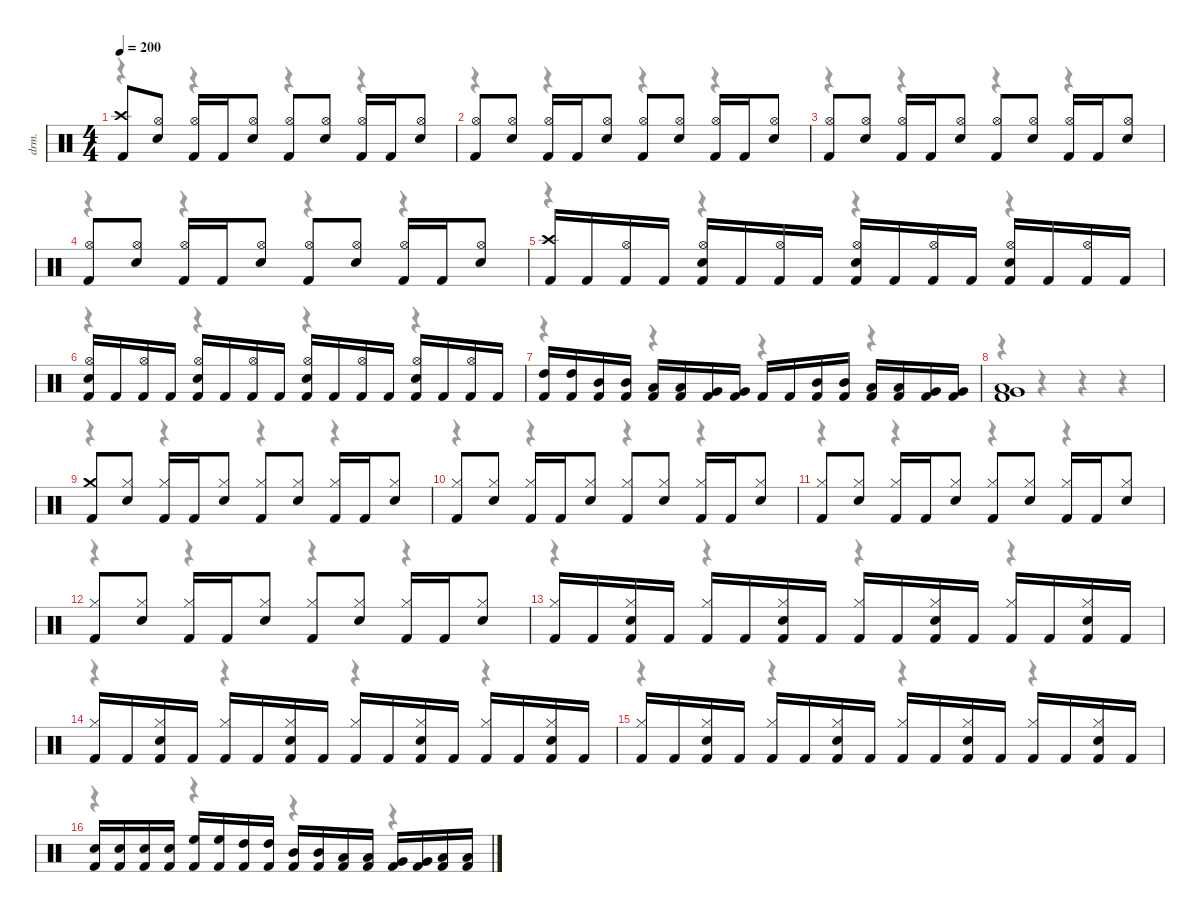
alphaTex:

\hideDynamics
\bracketExtendMode nobrackets
\otherSystemsTrackNameOrientation horizontal
\track ("Drums" "drm.") {instrument percussion}
\staff {score}
\articulation defaults
\voice
\ts (4 4)
\scale
0.992595
\tempo 200
\accidentals auto
\clef neutral
\ottava regular
\simile none
\ks c
("Kick (hit) 2" "Crash high (hit)").8{dy f} ("Snare (hit) 2" "Hi-Hat (open)").8 ("Kick (hit) 2" "Hi-Hat (open)").16 "Kick (hit) 2".16 ("Snare (hit) 2" "Hi-Hat (open)").8 ("Kick (hit) 2" "Hi-Hat (open)").8 ("Snare (hit) 2" "Hi-Hat (open)").8 ("Kick (hit) 2" "Hi-Hat (open)").16 "Kick (hit) 2".16 ("Snare (hit) 2" "Hi-Hat (open)").8 |
\scale
0.977884 ("Kick (hit) 2" "Hi-Hat (open)").8 ("Snare (hit) 2" "Hi-Hat (open)").8 ("Kick (hit) 2" "Hi-Hat (open)").16 "Kick (hit) 2".16 ("Snare (hit) 2" "Hi-Hat (open)").8 ("Kick (hit) 2" "Hi-Hat (open)").8 ("Snare (hit) 2" "Hi-Hat (open)").8 ("Kick (hit) 2" "Hi-Hat (open)").16 "Kick (hit) 2".16 ("Snare (hit) 2" "Hi-Hat (open)").8 |
\scale
0.977884 ("Kick (hit) 2" "Hi-Hat (open)").8 ("Snare (hit) 2" "Hi-Hat (open)").8 ("Kick (hit) 2" "Hi-Hat (open)").16 "Kick (hit) 2".16 ("Snare (hit) 2" "Hi-Hat (open)").8 ("Kick (hit) 2" "Hi-Hat (open)").8 ("Snare (hit) 2" "Hi-Hat (open)").8 ("Kick (hit) 2" "Hi-Hat (open)").16 "Kick (hit) 2".16 ("Snare (hit) 2" "Hi-Hat (open)").8 |
\scale
0.977884 ("Kick (hit) 2" "Hi-Hat (open)").8 ("Snare (hit) 2" "Hi-Hat (open)").8 ("Kick (hit) 2" "Hi-Hat (open)").16 "Kick (hit) 2".16 ("Snare (hit) 2" "Hi-Hat (open)").8 ("Kick (hit) 2" "Hi-Hat (open)").8 ("Snare (hit) 2" "Hi-Hat (open)").8 ("Kick (hit) 2" "Hi-Hat (open)").16 "Kick (hit) 2".16 ("Snare (hit) 2" "Hi-Hat (open)").8 |
\scale
1.08155 ("Kick (hit) 2" "Crash high (hit)").16 "Kick (hit) 2".16 ("Kick (hit) 2" "Hi-Hat (open)").16 "Kick (hit) 2".16 ("Kick (hit) 2" "Snare (hit) 2" "Hi-Hat (open)").16 "Kick (hit) 2".16 ("Kick (hit) 2" "Hi-Hat (open)").16 "Kick (hit) 2".16 ("Kick (hit) 2" "Snare (hit) 2" "Hi-Hat (open)").16 "Kick (hit) 2".16 ("Kick (hit) 2" "Hi-Hat (open)").16 "Kick (hit) 2".16 ("Kick (hit) 2" "Snare (hit) 2" "Hi-Hat (open)").16 "Kick (hit) 2".16 ("Kick (hit) 2" "Hi-Hat (open)").16 "Kick (hit) 2".16 |
\scale
0.978277 ("Kick (hit) 2" "Snare (hit) 2" "Hi-Hat (open)").16 "Kick (hit) 2".16 ("Kick (hit) 2" "Hi-Hat (open)").16 "Kick (hit) 2".16 ("Kick (hit) 2" "Snare (hit) 2" "Hi-Hat (open)").16 "Kick (hit) 2".16 ("Kick (hit) 2" "Hi-Hat (open)").16 "Kick (hit) 2".16 ("Kick (hit) 2" "Snare (hit) 2" "Hi-Hat (open)").16 "Kick (hit) 2".16 ("Kick (hit) 2" "Hi-Hat (open)").16 "Kick (hit) 2".16 ("Kick (hit) 2" "Snare (hit) 2" "Hi-Hat (open)").16 "Kick (hit) 2".16 ("Kick (hit) 2" "Hi-Hat (open)").16 "Kick (hit) 2".16 |
\scale
0.978277 ("Kick (hit) 2" "High Tom (hit)").16 ("Kick (hit) 2" "High Tom (hit)").16 ("Kick (hit) 2" "Mid Tom (hit)").16 ("Kick (hit) 2" "Mid Tom (hit)").16 ("Kick (hit) 2" "Low Tom (hit)").16 ("Kick (hit) 2" "Low Tom (hit)").16 ("Kick (hit) 2" "Very Low Tom (hit)").16 ("Kick (hit) 2" "Very Low Tom (hit)").16 "Kick (hit) 2".16 "Kick (hit) 2".16 ("Kick (hit) 2" "Mid Tom (hit)").16 ("Kick (hit) 2" "Mid Tom (hit)").16 ("Kick (hit) 2" "Low Tom (hit)").16 ("Kick (hit) 2" "Low Tom (hit)").16 ("Kick (hit) 2" "Very Low Tom (hit)").16 ("Kick (hit) 2" "Very Low Tom (hit)").16 |
\scale
0.990634 ("Kick (hit) 2" "Very Low Tom (hit)" "Low Floor Tom (hit)").1 |
\section ("" "")
\scale
0.978277 ("Kick (hit) 2" "Crash medium (hit)").8 ("Snare (hit) 2" "Hi-Hat (closed)").8 ("Kick (hit) 2" "Hi-Hat (closed)").16 "Kick (hit) 2".16 ("Snare (hit) 2" "Hi-Hat (closed)").8 ("Kick (hit) 2" "Hi-Hat (closed)").8 ("Snare (hit) 2" "Hi-Hat (closed)").8 ("Kick (hit) 2" "Hi-Hat (closed)").16 "Kick (hit) 2".16 ("Snare (hit) 2" "Hi-Hat (closed)").8 |
\scale
0.992988 ("Kick (hit) 2" "Hi-Hat (closed)").8 ("Snare (hit) 2" "Hi-Hat (closed)").8 ("Kick (hit) 2" "Hi-Hat (closed)").16 "Kick (hit) 2".16 ("Snare (hit) 2" "Hi-Hat (closed)").8 ("Kick (hit) 2" "Hi-Hat (closed)").8 ("Snare (hit) 2" "Hi-Hat (closed)").8 ("Kick (hit) 2" "Hi-Hat (closed)").16 "Kick (hit) 2".16 ("Snare (hit) 2" "Hi-Hat (closed)").8 |
\scale
1.0787 ("Kick (hit) 2" "Hi-Hat (closed)").8 ("Snare (hit) 2" "Hi-Hat (closed)").8 ("Kick (hit) 2" "Hi-Hat (closed)").16 "Kick (hit) 2".16 ("Snare (hit) 2" "Hi-Hat (closed)").8 ("Kick (hit) 2" "Hi-Hat (closed)").8 ("Snare (hit) 2" "Hi-Hat (closed)").8 ("Kick (hit) 2" "Hi-Hat (closed)").16 "Kick (hit) 2".16 ("Snare (hit) 2" "Hi-Hat (closed)").8 |
\scale
0.990143 ("Kick (hit) 2" "Hi-Hat (closed)").8 ("Snare (hit) 2" "Hi-Hat (closed)").8 ("Kick (hit) 2" "Hi-Hat (closed)").16 "Kick (hit) 2".16 ("Snare (hit) 2" "Hi-Hat (closed)").8 ("Kick (hit) 2" "Hi-Hat (closed)").8 ("Snare (hit) 2" "Hi-Hat (closed)").8 ("Kick (hit) 2" "Hi-Hat (closed)").16 "Kick (hit) 2".16 ("Snare (hit) 2" "Hi-Hat (closed)").8 |
\scale
0.975432 ("Kick (hit) 2" "Hi-Hat (closed)").16 "Kick (hit) 2".16 ("Kick (hit) 2" "Snare (hit) 2" "Hi-Hat (closed)").16 "Kick (hit) 2".16 ("Kick (hit) 2" "Hi-Hat (closed)").16 "Kick (hit) 2".16 ("Kick (hit) 2" "Snare (hit) 2" "Hi-Hat (closed)").16 "Kick (hit) 2".16 ("Kick (hit) 2" "Hi-Hat (closed)").16 "Kick (hit) 2".16 ("Kick (hit) 2" "Snare (hit) 2" "Hi-Hat (closed)").16 "Kick (hit) 2".16 ("Kick (hit) 2" "Hi-Hat (closed)").16 "Kick (hit) 2".16 ("Kick (hit) 2" "Snare (hit) 2" "Hi-Hat (closed)").16 "Kick (hit) 2".16 |
\scale
0.975432 ("Kick (hit) 2" "Hi-Hat (closed)").16 "Kick (hit) 2".16 ("Kick (hit) 2" "Snare (hit) 2" "Hi-Hat (closed)").16 "Kick (hit) 2".16 ("Kick (hit) 2" "Hi-Hat (closed)").16 "Kick (hit) 2".16 ("Kick (hit) 2" "Snare (hit) 2" "Hi-Hat (closed)").16 "Kick (hit) 2".16 ("Kick (hit) 2" "Hi-Hat (closed)").16 "Kick (hit) 2".16 ("Kick (hit) 2" "Snare (hit) 2" "Hi-Hat (closed)").16 "Kick (hit) 2".16 ("Kick (hit) 2" "Hi-Hat (closed)").16 "Kick (hit) 2".16 ("Kick (hit) 2" "Snare (hit) 2" "Hi-Hat (closed)").16 "Kick (hit) 2".16 |
\scale
0.990143 ("Kick (hit) 2" "Hi-Hat (closed)").16 "Kick (hit) 2".16 ("Kick (hit) 2" "Snare (hit) 2" "Hi-Hat (closed)").16 "Kick (hit) 2".16 ("Kick (hit) 2" "Hi-Hat (closed)").16 "Kick (hit) 2".16 ("Kick (hit) 2" "Snare (hit) 2" "Hi-Hat (closed)").16 "Kick (hit) 2".16 ("Kick (hit) 2" "Hi-Hat (closed)").16 "Kick (hit) 2".16 ("Kick (hit) 2" "Snare (hit) 2" "Hi-Hat (closed)").16 "Kick (hit) 2".16 ("Kick (hit) 2" "Hi-Hat (closed)").16 "Kick (hit) 2".16 ("Kick (hit) 2" "Snare (hit) 2" "Hi-Hat (closed)").16 "Kick (hit) 2".16 |
\scale
0.990143 ("Kick (hit) 2" "Snare (hit) 2").16 ("Kick (hit) 2" "Snare (hit) 2").16 ("Kick (hit) 2" "Snare (hit) 2").16 ("Kick (hit) 2" "Snare (hit) 2").16 ("Kick (hit) 2" "High Floor Tom (hit)").16 ("Kick (hit) 2" "High Floor Tom (hit)").16 ("Kick (hit) 2" "High Tom (hit)").16 ("Kick (hit) 2" "High Tom (hit)").16 ("Kick (hit) 2" "Mid Tom (hit)").16 ("Kick (hit) 2" "Mid Tom (hit)").16 ("Kick (hit) 2" "Low Tom (hit)").16 ("Kick (hit) 2" "Low Tom (hit)").16 ("Kick (hit) 2" "Very Low Tom (hit)").16 ("Kick (hit) 2" "Very Low Tom (hit)").16 ("Kick (hit) 2" "Low Floor Tom (hit)").16 ("Kick (hit) 2" "Low Floor Tom (hit)").16
\voice
\clef neutral
\ottava regular
\simile none
\ks c
r.4{dy mf} r.4 r.4 r.4 |
r.4 r.4 r.4 r.4 |
r.4 r.4 r.4 r.4 |
r.4 r.4 r.4 r.4 |
r.4 r.4 r.4 r.4 |
r.4 r.4 r.4 r.4 |
r.4 r.4 r.4 r.4 |
r.4 r.4 r.4 r.4 |
r.4 r.4 r.4 r.4 |
r.4 r.4 r.4 r.4 |
r.4 r.4 r.4 r.4 |
r.4 r.4 r.4 r.4 |
r.4 r.4 r.4 r.4 |
r.4 r.4 r.4 r.4 |
r.4 r.4 r.4 r.4 |
r.4 r.4 r.4 r.4
